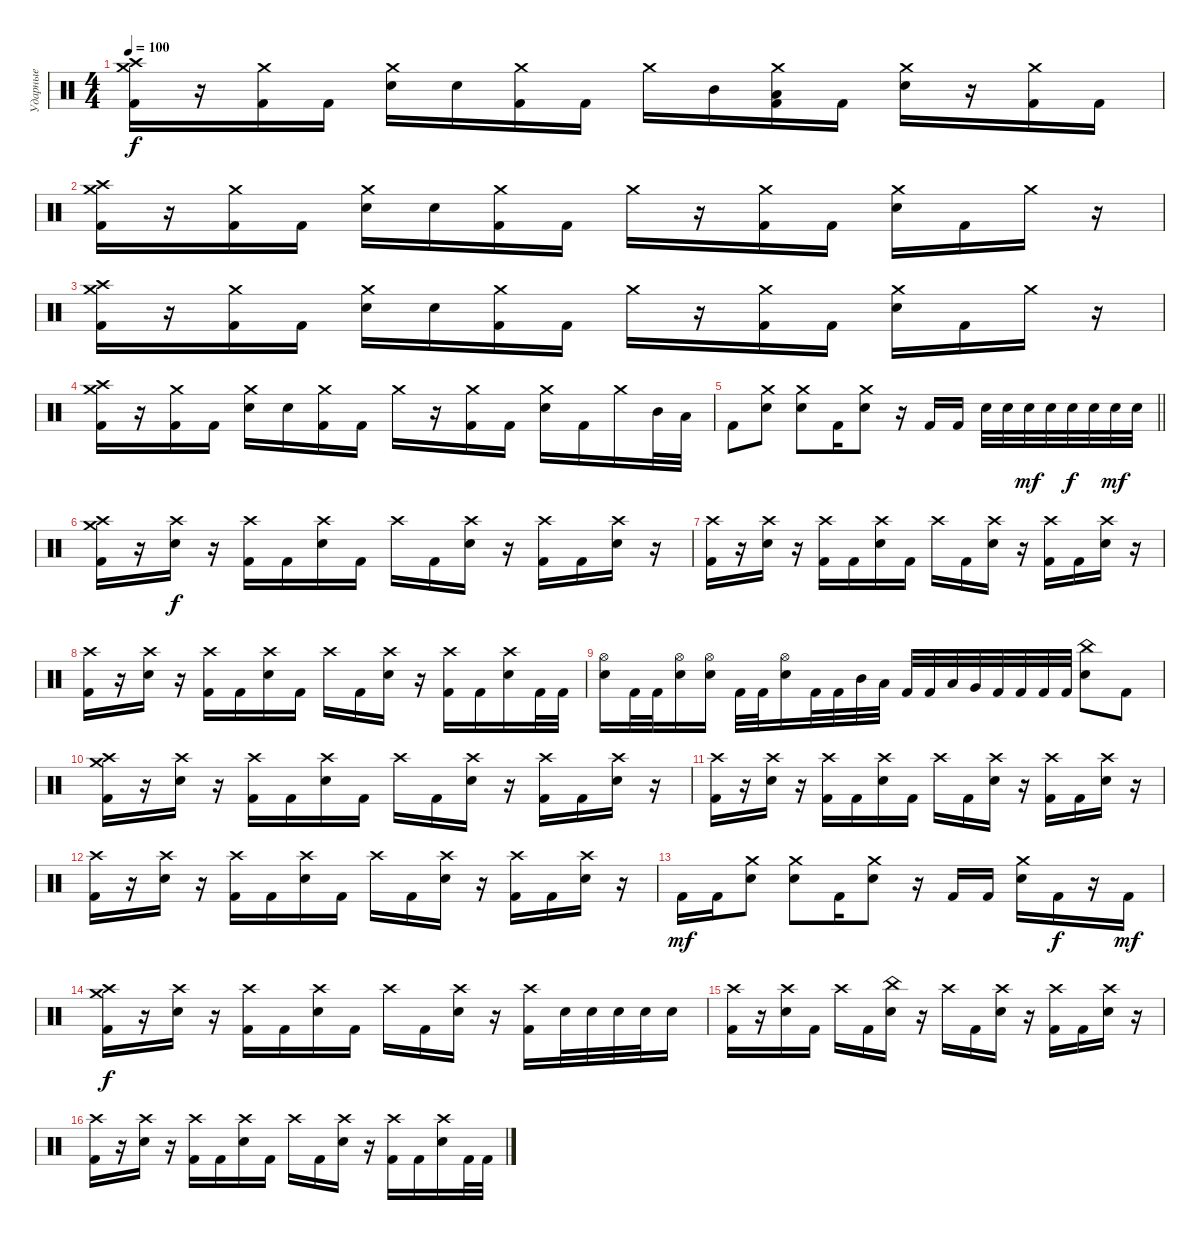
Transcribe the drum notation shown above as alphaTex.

\track ("Ударные" "Ударные") {instrument percussion}
\staff {score}
\articulation defaults
\ts (4 4)
\tempo 100
\clef neutral
\ks c
("Crash high (hit)" "Crash medium (hit)" "Kick (hit) 2").16{dy f} r.16 ("Crash medium (hit)" "Kick (hit) 2").16 "Kick (hit) 2".16 ("Crash medium (hit)" "Electric Snare (hit)").16 "Electric Snare (hit)".16 ("Crash medium (hit)" "Kick (hit) 2").16 "Kick (hit) 2".16 "Crash medium (hit)".16 "Mid Tom (hit)".16 ("Crash medium (hit)" "Low Tom (hit)" "Kick (hit) 2").16 "Kick (hit) 2".16 ("Crash medium (hit)" "Electric Snare (hit)").16 r.16 ("Crash medium (hit)" "Kick (hit) 2").16 "Kick (hit) 2".16 |
("Crash high (hit)" "Crash medium (hit)" "Kick (hit) 2").16 r.16 ("Crash medium (hit)" "Kick (hit) 2").16 "Kick (hit) 2".16 ("Crash medium (hit)" "Electric Snare (hit)").16 "Electric Snare (hit)".16 ("Crash medium (hit)" "Kick (hit) 2").16 "Kick (hit) 2".16 "Crash medium (hit)".16 r.16 ("Crash medium (hit)" "Kick (hit) 2").16 "Kick (hit) 2".16 ("Crash medium (hit)" "Electric Snare (hit)").16 "Kick (hit) 2".16 "Crash medium (hit)".16 r.16 |
("Crash high (hit)" "Crash medium (hit)" "Kick (hit) 2").16 r.16 ("Crash medium (hit)" "Kick (hit) 2").16 "Kick (hit) 2".16 ("Crash medium (hit)" "Electric Snare (hit)").16 "Electric Snare (hit)".16 ("Crash medium (hit)" "Kick (hit) 2").16 "Kick (hit) 2".16 "Crash medium (hit)".16 r.16 ("Crash medium (hit)" "Kick (hit) 2").16 "Kick (hit) 2".16 ("Crash medium (hit)" "Electric Snare (hit)").16 "Kick (hit) 2".16 "Crash medium (hit)".16 r.16 |
("Crash high (hit)" "Crash medium (hit)" "Kick (hit) 2").16 r.16 ("Crash medium (hit)" "Kick (hit) 2").16 "Kick (hit) 2".16 ("Crash medium (hit)" "Electric Snare (hit)").16 "Electric Snare (hit)".16 ("Crash medium (hit)" "Kick (hit) 2").16 "Kick (hit) 2".16 "Crash medium (hit)".16 r.16 ("Crash medium (hit)" "Kick (hit) 2").16 "Kick (hit) 2".16 ("Crash medium (hit)" "Electric Snare (hit)").16 "Kick (hit) 2".16 "Crash medium (hit)".16 "Mid Tom (hit)".32 "Low Tom (hit)".32 |
\barLineRight lightlight "Kick (hit) 2".8
("Crash medium (hit)" "Electric Snare (hit)").8 ("Crash medium (hit)" "Electric Snare (hit)").8 "Kick (hit) 2".16 ("Crash medium (hit)" "Electric Snare (hit)").8 r.16 "Kick (hit) 2".16 "Kick (hit) 2".16 "Electric Snare (hit)".32 "Electric Snare (hit)".32 "Electric Snare (hit)".32{dy mf} "Electric Snare (hit)".32 "Electric Snare (hit)".32{dy f} "Electric Snare (hit)".32 "Electric Snare (hit)".32{dy mf} "Electric Snare (hit)".32 |
("Crash high (hit)" "Crash medium (hit)" "Kick (hit) 2").16 r.16 ("Crash high (hit)" "Electric Snare (hit)").16{dy f} r.16 ("Crash high (hit)" "Kick (hit) 2").16 "Kick (hit) 2".16 ("Crash high (hit)" "Electric Snare (hit)").16 "Kick (hit) 2".16 "Crash high (hit)".16 "Kick (hit) 2".16 ("Crash high (hit)" "Electric Snare (hit)").16 r.16 ("Crash high (hit)" "Kick (hit) 2").16 "Kick (hit) 2".16 ("Crash high (hit)" "Electric Snare (hit)").16 r.16 |
("Crash high (hit)" "Kick (hit) 2").16 r.16 ("Crash high (hit)" "Electric Snare (hit)").16 r.16 ("Crash high (hit)" "Kick (hit) 2").16 "Kick (hit) 2".16 ("Crash high (hit)" "Electric Snare (hit)").16 "Kick (hit) 2".16 "Crash high (hit)".16 "Kick (hit) 2".16 ("Crash high (hit)" "Electric Snare (hit)").16 r.16 ("Crash high (hit)" "Kick (hit) 2").16 "Kick (hit) 2".16 ("Crash high (hit)" "Electric Snare (hit)").16 r.16 |
("Crash high (hit)" "Kick (hit) 2").16 r.16 ("Crash high (hit)" "Electric Snare (hit)").16 r.16 ("Crash high (hit)" "Kick (hit) 2").16 "Kick (hit) 2".16 ("Crash high (hit)" "Electric Snare (hit)").16 "Kick (hit) 2".16 "Crash high (hit)".16 "Kick (hit) 2".16 ("Crash high (hit)" "Electric Snare (hit)").16 r.16 ("Crash high (hit)" "Kick (hit) 2").16 "Kick (hit) 2".16 ("Crash high (hit)" "Electric Snare (hit)").16 "Kick (hit) 2".32 "Kick (hit) 2".32 |
("Hi-Hat (open)" "Electric Snare (hit)").16 "Kick (hit) 2".32 "Kick (hit) 2".32 ("Hi-Hat (open)" "Electric Snare (hit)").16 ("Hi-Hat (open)" "Electric Snare (hit)").16 "Kick (hit) 2".32 "Kick (hit) 2".32 ("Hi-Hat (open)" "Electric Snare (hit)").16 "Kick (hit) 2".32 "Kick (hit) 2".32 "Mid Tom (hit)".32 "Low Tom (hit)".32 "Kick (hit) 2".32 "Kick (hit) 2".32 "Low Tom (hit)".32 "Very Low Tom (hit)".32 "Kick (hit) 2".32 "Kick (hit) 2".32 "Kick (hit) 2".32 "Kick (hit) 2".32 ("China (hit)" "Electric Snare (hit)").8 "Kick (hit) 2".8 |
("Crash high (hit)" "Crash medium (hit)" "Kick (hit) 2").16 r.16 ("Crash high (hit)" "Electric Snare (hit)").16 r.16 ("Crash high (hit)" "Kick (hit) 2").16 "Kick (hit) 2".16 ("Crash high (hit)" "Electric Snare (hit)").16 "Kick (hit) 2".16 "Crash high (hit)".16 "Kick (hit) 2".16 ("Crash high (hit)" "Electric Snare (hit)").16 r.16 ("Crash high (hit)" "Kick (hit) 2").16 "Kick (hit) 2".16 ("Crash high (hit)" "Electric Snare (hit)").16 r.16 |
("Crash high (hit)" "Kick (hit) 2").16 r.16 ("Crash high (hit)" "Electric Snare (hit)").16 r.16 ("Crash high (hit)" "Kick (hit) 2").16 "Kick (hit) 2".16 ("Crash high (hit)" "Electric Snare (hit)").16 "Kick (hit) 2".16 "Crash high (hit)".16 "Kick (hit) 2".16 ("Crash high (hit)" "Electric Snare (hit)").16 r.16 ("Crash high (hit)" "Kick (hit) 2").16 "Kick (hit) 2".16 ("Crash high (hit)" "Electric Snare (hit)").16 r.16 |
("Crash high (hit)" "Kick (hit) 2").16 r.16 ("Crash high (hit)" "Electric Snare (hit)").16 r.16 ("Crash high (hit)" "Kick (hit) 2").16 "Kick (hit) 2".16 ("Crash high (hit)" "Electric Snare (hit)").16 "Kick (hit) 2".16 "Crash high (hit)".16 "Kick (hit) 2".16 ("Crash high (hit)" "Electric Snare (hit)").16 r.16 ("Crash high (hit)" "Kick (hit) 2").16 "Kick (hit) 2".16 ("Crash high (hit)" "Electric Snare (hit)").16 r.16 |
"Kick (hit) 2".16{dy mf} "Kick (hit) 2".16 ("Crash medium (hit)" "Electric Snare (hit)").8 ("Crash medium (hit)" "Electric Snare (hit)").8 "Kick (hit) 2".16 ("Crash medium (hit)" "Electric Snare (hit)").8 r.16 "Kick (hit) 2".16 "Kick (hit) 2".16 ("Crash medium (hit)" "Electric Snare (hit)").16 "Kick (hit) 2".16{dy f} r.16 "Kick (hit) 2".16{dy mf} |
("Crash high (hit)" "Crash medium (hit)" "Kick (hit) 2").16{dy f} r.16 ("Crash high (hit)" "Electric Snare (hit)").16 r.16 ("Crash high (hit)" "Kick (hit) 2").16 "Kick (hit) 2".16 ("Crash high (hit)" "Electric Snare (hit)").16 "Kick (hit) 2".16 "Crash high (hit)".16 "Kick (hit) 2".16 ("Crash high (hit)" "Electric Snare (hit)").16 r.16 ("Crash high (hit)" "Kick (hit) 2").16 "Electric Snare (hit)".32 "Electric Snare (hit)".32 "Electric Snare (hit)".32 "Electric Snare (hit)".32 "Electric Snare (hit)".16 |
("Crash high (hit)" "Kick (hit) 2").16 r.16 ("Crash high (hit)" "Electric Snare (hit)").16 "Kick (hit) 2".16 "Crash high (hit)".16 "Kick (hit) 2".16 ("China (hit)" "Electric Snare (hit)").16 r.16 "Crash high (hit)".16 "Kick (hit) 2".16 ("Crash high (hit)" "Electric Snare (hit)").16 r.16 ("Crash high (hit)" "Kick (hit) 2").16 "Kick (hit) 2".16 ("Crash high (hit)" "Electric Snare (hit)").16 r.16 |
("Crash high (hit)" "Kick (hit) 2").16 r.16 ("Crash high (hit)" "Electric Snare (hit)").16 r.16 ("Crash high (hit)" "Kick (hit) 2").16 "Kick (hit) 2".16 ("Crash high (hit)" "Electric Snare (hit)").16 "Kick (hit) 2".16 "Crash high (hit)".16 "Kick (hit) 2".16 ("Crash high (hit)" "Electric Snare (hit)").16 r.16 ("Crash high (hit)" "Kick (hit) 2").16 "Kick (hit) 2".16 ("Crash high (hit)" "Electric Snare (hit)").16 "Kick (hit) 2".32 "Kick (hit) 2".32
